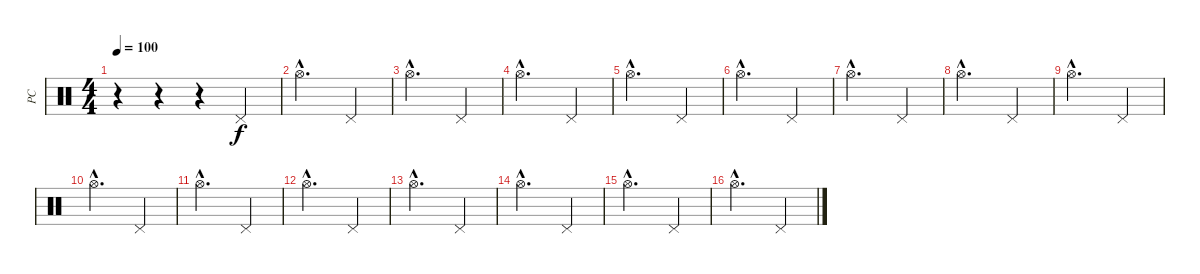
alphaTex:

\track ("PC" "PC") {instrument percussion}
\staff {score}
\articulation defaults
\ts (4 4)
\tempo 100
\clef neutral
\ks c
r.4{dy f} r.4 r.4 "Pedal Hi-Hat (hit)".4 |
"Hi-Hat (open)"{hac}.2{d} "Pedal Hi-Hat (hit)".4 |
"Hi-Hat (open)"{hac}.2{d} "Pedal Hi-Hat (hit)".4 |
"Hi-Hat (open)"{hac}.2{d} "Pedal Hi-Hat (hit)".4 |
"Hi-Hat (open)"{hac}.2{d} "Pedal Hi-Hat (hit)".4 |
"Hi-Hat (open)"{hac}.2{d} "Pedal Hi-Hat (hit)".4 |
"Hi-Hat (open)"{hac}.2{d} "Pedal Hi-Hat (hit)".4 |
"Hi-Hat (open)"{hac}.2{d} "Pedal Hi-Hat (hit)".4 |
"Hi-Hat (open)"{hac}.2{d} "Pedal Hi-Hat (hit)".4 |
"Hi-Hat (open)"{hac}.2{d} "Pedal Hi-Hat (hit)".4 |
"Hi-Hat (open)"{hac}.2{d} "Pedal Hi-Hat (hit)".4 |
"Hi-Hat (open)"{hac}.2{d} "Pedal Hi-Hat (hit)".4 |
"Hi-Hat (open)"{hac}.2{d} "Pedal Hi-Hat (hit)".4 |
"Hi-Hat (open)"{hac}.2{d} "Pedal Hi-Hat (hit)".4 |
"Hi-Hat (open)"{hac}.2{d} "Pedal Hi-Hat (hit)".4 |
"Hi-Hat (open)"{hac}.2{d} "Pedal Hi-Hat (hit)".4
